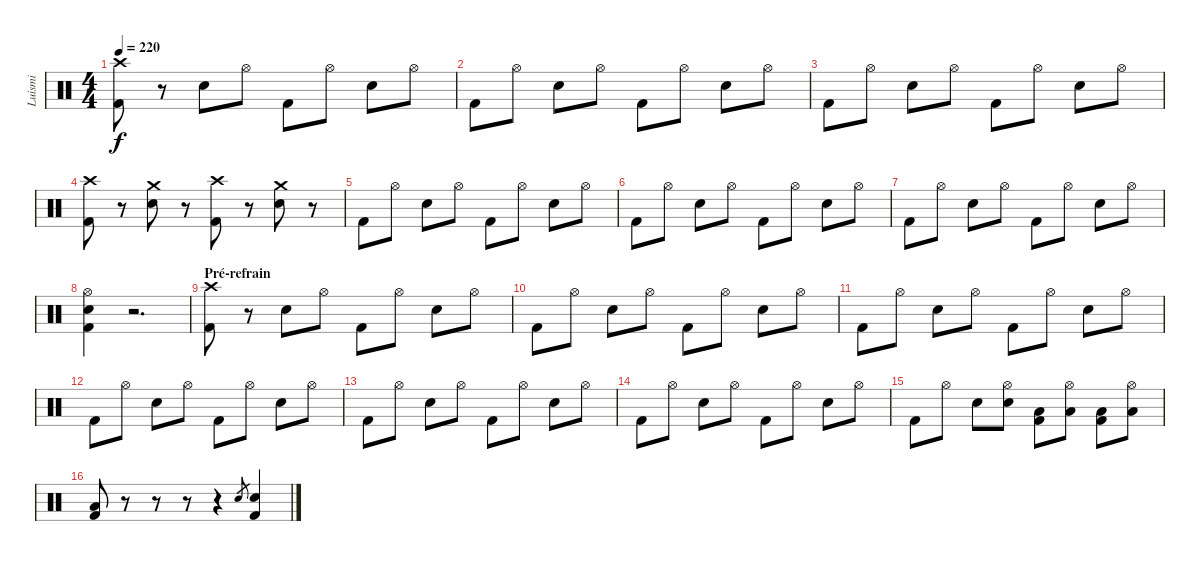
\track ("Luismi" "Luismi") {instrument percussion}
\staff {score}
\articulation defaults
\ts (4 4)
\tempo 220
\clef neutral
\ks c
("Crash high (hit)" "Kick (hit) 2").8{dy f} r.8 "Snare (hit) 2".8 "Hi-Hat (open)".8 "Kick (hit) 2".8 "Hi-Hat (open)".8 "Snare (hit) 2".8 "Hi-Hat (open)".8 |
"Kick (hit) 2".8 "Hi-Hat (open)".8 "Snare (hit) 2".8 "Hi-Hat (open)".8 "Kick (hit) 2".8 "Hi-Hat (open)".8 "Snare (hit) 2".8 "Hi-Hat (open)".8 |
"Kick (hit) 2".8 "Hi-Hat (open)".8 "Snare (hit) 2".8 "Hi-Hat (open)".8 "Kick (hit) 2".8 "Hi-Hat (open)".8 "Snare (hit) 2".8 "Hi-Hat (open)".8 |
("Crash high (hit)" "Kick (hit) 2").8 r.8 ("Crash medium (hit)" "Snare (hit) 2").8 r.8 ("Crash high (hit)" "Kick (hit) 2").8 r.8 ("Crash medium (hit)" "Snare (hit) 2").8 r.8 |
"Kick (hit) 2".8 "Hi-Hat (open)".8 "Snare (hit) 2".8 "Hi-Hat (open)".8 "Kick (hit) 2".8 "Hi-Hat (open)".8 "Snare (hit) 2".8 "Hi-Hat (open)".8 |
"Kick (hit) 2".8 "Hi-Hat (open)".8 "Snare (hit) 2".8 "Hi-Hat (open)".8 "Kick (hit) 2".8 "Hi-Hat (open)".8 "Snare (hit) 2".8 "Hi-Hat (open)".8 |
"Kick (hit) 2".8 "Hi-Hat (open)".8 "Snare (hit) 2".8 "Hi-Hat (open)".8 "Kick (hit) 2".8 "Hi-Hat (open)".8 "Snare (hit) 2".8 "Hi-Hat (open)".8 |
("Hi-Hat (open)" "Snare (hit) 2" "Kick (hit) 2").4 r.2{d} |
\section ("" "Pré-refrain")
("Crash high (hit)" "Kick (hit) 2").8 r.8 "Snare (hit) 2".8 "Hi-Hat (open)".8 "Kick (hit) 2".8 "Hi-Hat (open)".8 "Snare (hit) 2".8 "Hi-Hat (open)".8 |
"Kick (hit) 2".8 "Hi-Hat (open)".8 "Snare (hit) 2".8 "Hi-Hat (open)".8 "Kick (hit) 2".8 "Hi-Hat (open)".8 "Snare (hit) 2".8 "Hi-Hat (open)".8 |
"Kick (hit) 2".8 "Hi-Hat (open)".8 "Snare (hit) 2".8 "Hi-Hat (open)".8 "Kick (hit) 2".8 "Hi-Hat (open)".8 "Snare (hit) 2".8 "Hi-Hat (open)".8 |
"Kick (hit) 2".8 "Hi-Hat (open)".8 "Snare (hit) 2".8 "Hi-Hat (open)".8 "Kick (hit) 2".8 "Hi-Hat (open)".8 "Snare (hit) 2".8 "Hi-Hat (open)".8 |
"Kick (hit) 2".8 "Hi-Hat (open)".8 "Snare (hit) 2".8 "Hi-Hat (open)".8 "Kick (hit) 2".8 "Hi-Hat (open)".8 "Snare (hit) 2".8 "Hi-Hat (open)".8 |
"Kick (hit) 2".8 "Hi-Hat (open)".8 "Snare (hit) 2".8 "Hi-Hat (open)".8 "Kick (hit) 2".8 "Hi-Hat (open)".8 "Snare (hit) 2".8 "Hi-Hat (open)".8 |
"Kick (hit) 2".8 "Hi-Hat (open)".8 "Snare (hit) 2".8 ("Hi-Hat (open)" "Snare (hit) 2").8 ("Low Tom (hit)" "Kick (hit) 2").8 ("Hi-Hat (open)" "Low Tom (hit)").8 ("Low Floor Tom (hit)" "Kick (hit) 2").8 ("Hi-Hat (open)" "Low Floor Tom (hit)").8 |
("Low Floor Tom (hit)" "Kick (hit) 2").8 r.8 r.8 r.8 r.4 "Snare (hit) 2".8{gr} ("Snare (hit) 2" "Kick (hit) 2").4
